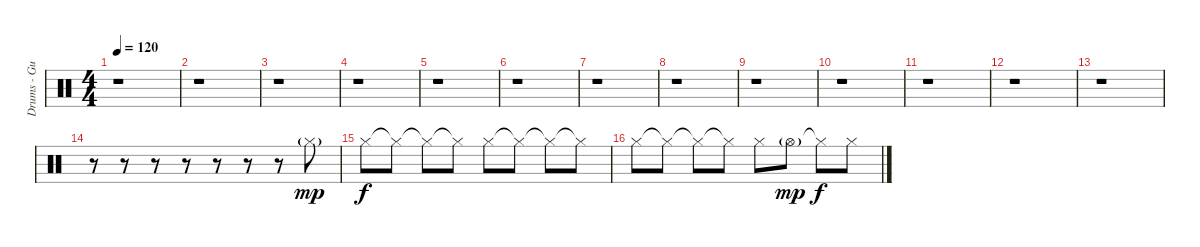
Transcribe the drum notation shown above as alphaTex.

\track ("Drums - Gustav" "Drums - Gu") {instrument percussion}
\staff {score}
\articulation defaults
\ts (4 4)
\tempo 120
\clef neutral
\ks c
r.1{dy mp} |
r.1 |
r.1 |
r.1 |
r.1 |
r.1 |
r.1 |
r.1 |
r.1 |
r.1 |
r.1 |
r.1 |
r.1 |
r.8 r.8 r.8 r.8 r.8 r.8 r.8 "Hi-Hat (closed)"{g}.8 |
"Hi-Hat (closed)".8{dy f} "Hi-Hat (closed)"{t}.8 "Hi-Hat (closed)"{t}.8 "Hi-Hat (closed)"{t}.8 "Hi-Hat (closed)".8 "Hi-Hat (closed)"{t}.8 "Hi-Hat (closed)"{t}.8 "Hi-Hat (closed)"{t}.8 |
"Hi-Hat (closed)".8 "Hi-Hat (closed)"{t}.8 "Hi-Hat (closed)"{t}.8 "Hi-Hat (closed)"{t}.8 "Hi-Hat (closed)".8 "Hi-Hat (open)"{g}.8{dy mp} "Hi-Hat (closed)"{t}.8{dy f} "Hi-Hat (closed)".8
